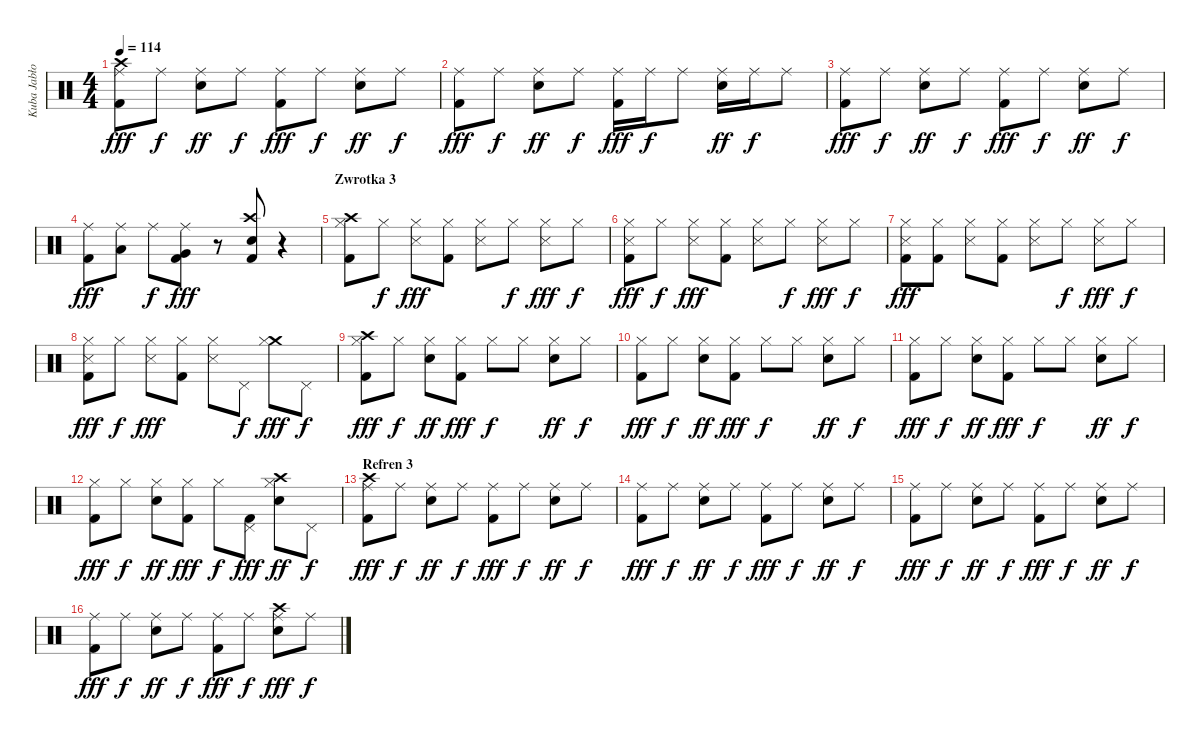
\track ("Kuba Jabłoński" "Kuba Jabło") {instrument percussion}
\staff {score}
\articulation defaults
\ts (4 4)
\tempo 114
\clef neutral
\ks c
("Kick (hit) 2" "Ride (middle)" "Crash high (hit)").8{dy fff} "Ride (middle)".8{dy f} ("Snare (hit) 2" "Ride (middle)").8{dy ff} "Ride (middle)".8{dy f} ("Kick (hit) 2" "Ride (middle)").8{dy fff} "Ride (middle)".8{dy f} ("Snare (hit) 2" "Ride (middle)").8{dy ff} "Ride (middle)".8{dy f} |
("Kick (hit) 2" "Ride (middle)").8{dy fff} "Ride (middle)".8{dy f} ("Snare (hit) 2" "Ride (middle)").8{dy ff} "Ride (middle)".8{dy f} ("Kick (hit) 2" "Ride (middle)").16{dy fff} "Ride (middle)".16{dy f} "Ride (middle)".8 ("Snare (hit) 2" "Ride (middle)").16{dy ff} "Ride (middle)".16{dy f} "Ride (middle)".8 |
("Kick (hit) 2" "Ride (middle)").8{dy fff} "Ride (middle)".8{dy f} ("Snare (hit) 2" "Ride (middle)").8{dy ff} "Ride (middle)".8{dy f} ("Kick (hit) 2" "Ride (middle)").8{dy fff} "Ride (middle)".8{dy f} ("Snare (hit) 2" "Ride (middle)").8{dy ff} "Ride (middle)".8{dy f} |
("Kick (hit) 2" "Ride (middle)").8{dy fff} ("Ride (middle)" "Low Tom (hit)").8 "Ride (middle)".8{dy f} ("Kick (hit) 2" "Ride (middle)" "Very Low Tom (hit)").8{dy fff} r.8 ("Kick (hit) 2" "Snare (hit) 2" "Crash high (hit)").8 r.4 |
\section ("" "Zwrotka 3")
("Kick (hit) 2" "Hi-Hat (closed)" "Crash high (hit)").8 "Hi-Hat (closed)".8{dy f} ("Snare (side stick) 3" "Hi-Hat (closed)").8{dy fff} ("Kick (hit) 2" "Hi-Hat (closed)").8 ("Snare (side stick) 3" "Hi-Hat (closed)").8 "Hi-Hat (closed)".8{dy f} ("Snare (side stick) 3" "Hi-Hat (closed)").8{dy fff} "Hi-Hat (closed)".8{dy f} |
("Kick (hit) 2" "Snare (side stick) 3" "Hi-Hat (closed)").8{dy fff} "Hi-Hat (closed)".8{dy f} ("Snare (side stick) 3" "Hi-Hat (closed)").8{dy fff} ("Kick (hit) 2" "Hi-Hat (closed)").8 ("Snare (side stick) 3" "Hi-Hat (closed)").8 "Hi-Hat (closed)".8{dy f} ("Snare (side stick) 3" "Hi-Hat (closed)").8{dy fff} "Hi-Hat (closed)".8{dy f} |
("Kick (hit) 2" "Snare (side stick) 3" "Hi-Hat (closed)").8{dy fff} ("Kick (hit) 2" "Hi-Hat (closed)").8 ("Snare (side stick) 3" "Hi-Hat (closed)").8 ("Kick (hit) 2" "Hi-Hat (closed)").8 ("Snare (side stick) 3" "Hi-Hat (closed)").8 "Hi-Hat (closed)".8{dy f} ("Snare (side stick) 3" "Hi-Hat (closed)").8{dy fff} "Hi-Hat (closed)".8{dy f} |
("Kick (hit) 2" "Snare (side stick) 3" "Hi-Hat (closed)").8{dy fff} "Hi-Hat (closed)".8{dy f} ("Snare (side stick) 3" "Hi-Hat (closed)").8{dy fff} ("Kick (hit) 2" "Hi-Hat (closed)").8 ("Snare (side stick) 3" "Hi-Hat (closed)").8 "Pedal Hi-Hat (hit)".8{dy f} ("Crash medium (hit)" "Hi-Hat (closed)").8{dy fff} "Pedal Hi-Hat (hit)".8{dy f} |
("Kick (hit) 2" "Hi-Hat (closed)" "Crash high (hit)").8{dy fff} "Hi-Hat (closed)".8{dy f} ("Snare (hit) 2" "Hi-Hat (closed)").8{dy ff} ("Kick (hit) 2" "Hi-Hat (closed)").8{dy fff} "Hi-Hat (closed)".8{dy f} "Hi-Hat (closed)".8 ("Snare (hit) 2" "Hi-Hat (closed)").8{dy ff} "Hi-Hat (closed)".8{dy f} |
("Kick (hit) 2" "Hi-Hat (closed)").8{dy fff} "Hi-Hat (closed)".8{dy f} ("Snare (hit) 2" "Hi-Hat (closed)").8{dy ff} ("Kick (hit) 2" "Hi-Hat (closed)").8{dy fff} "Hi-Hat (closed)".8{dy f} "Hi-Hat (closed)".8 ("Snare (hit) 2" "Hi-Hat (closed)").8{dy ff} "Hi-Hat (closed)".8{dy f} |
("Kick (hit) 2" "Hi-Hat (closed)").8{dy fff} "Hi-Hat (closed)".8{dy f} ("Snare (hit) 2" "Hi-Hat (closed)").8{dy ff} ("Kick (hit) 2" "Hi-Hat (closed)").8{dy fff} "Hi-Hat (closed)".8{dy f} "Hi-Hat (closed)".8 ("Snare (hit) 2" "Hi-Hat (closed)").8{dy ff} "Hi-Hat (closed)".8{dy f} |
("Kick (hit) 2" "Hi-Hat (closed)").8{dy fff} "Hi-Hat (closed)".8{dy f} ("Snare (hit) 2" "Hi-Hat (closed)").8{dy ff} ("Kick (hit) 2" "Hi-Hat (closed)").8{dy fff} "Hi-Hat (closed)".8{dy f} ("Kick (hit) 2" "Pedal Hi-Hat (hit)").8{dy fff} ("Crash high (hit)" "Snare (hit) 2" "Hi-Hat (closed)").8{dy ff} "Pedal Hi-Hat (hit)".8{dy f} |
\section ("" "Refren 3")
("Kick (hit) 2" "Ride (middle)" "Crash high (hit)").8{dy fff} "Ride (middle)".8{dy f} ("Snare (hit) 2" "Ride (middle)").8{dy ff} "Ride (middle)".8{dy f} ("Kick (hit) 2" "Ride (middle)").8{dy fff} "Ride (middle)".8{dy f} ("Snare (hit) 2" "Ride (middle)").8{dy ff} "Ride (middle)".8{dy f} |
("Kick (hit) 2" "Ride (middle)").8{dy fff} "Ride (middle)".8{dy f} ("Snare (hit) 2" "Ride (middle)").8{dy ff} "Ride (middle)".8{dy f} ("Kick (hit) 2" "Ride (middle)").8{dy fff} "Ride (middle)".8{dy f} ("Snare (hit) 2" "Ride (middle)").8{dy ff} "Ride (middle)".8{dy f} |
("Kick (hit) 2" "Ride (middle)").8{dy fff} "Ride (middle)".8{dy f} ("Snare (hit) 2" "Ride (middle)").8{dy ff} "Ride (middle)".8{dy f} ("Kick (hit) 2" "Ride (middle)").8{dy fff} "Ride (middle)".8{dy f} ("Snare (hit) 2" "Ride (middle)").8{dy ff} "Ride (middle)".8{dy f} |
("Kick (hit) 2" "Ride (middle)").8{dy fff} "Ride (middle)".8{dy f} ("Snare (hit) 2" "Ride (middle)").8{dy ff} "Ride (middle)".8{dy f} ("Kick (hit) 2" "Ride (middle)").8{dy fff} "Ride (middle)".8{dy f} ("Snare (hit) 2" "Ride (middle)" "Crash high (hit)").8{dy fff} "Ride (middle)".8{dy f}
